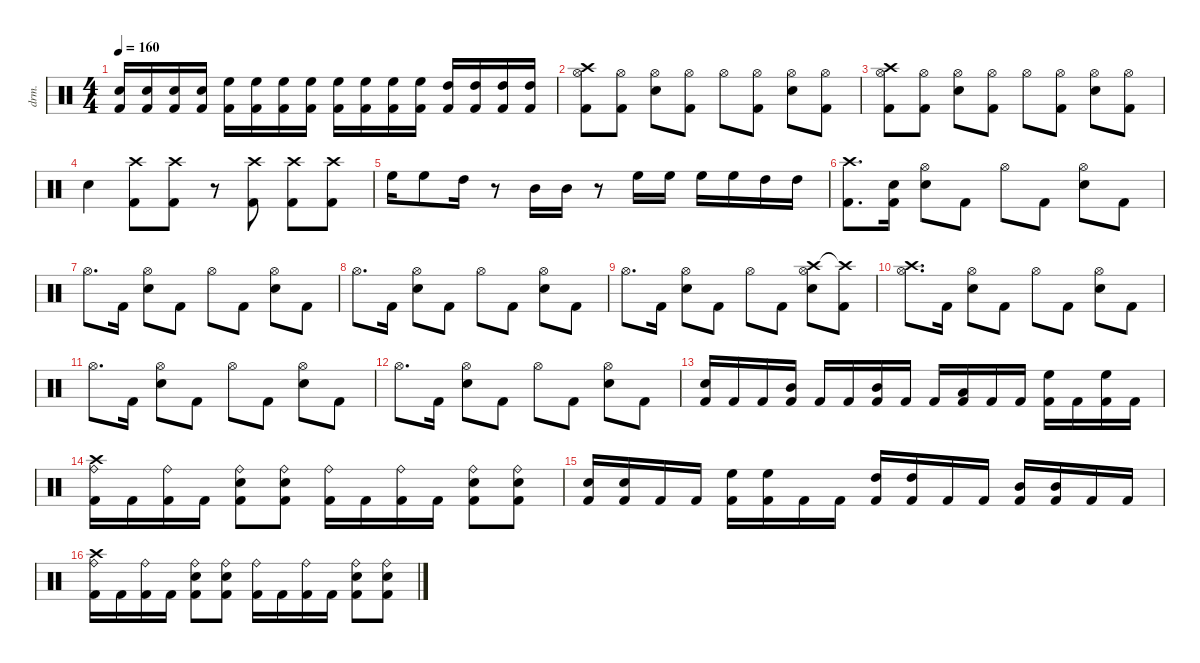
\defaultSystemsLayout 4
\hideDynamics
\bracketExtendMode nobrackets
\track ("Menza" "drm.") {instrument percussion}
\staff {score}
\articulation defaults
\ts (4 4)
\tempo 160
\clef neutral
\ks c
("Snare (hit) 2" "Kick (hit) 2").16{dy f} ("Snare (hit) 2" "Kick (hit) 2").16 ("Snare (hit) 2" "Kick (hit) 2").16 ("Snare (hit) 2" "Kick (hit) 2").16 ("High Floor Tom (hit)" "Kick (hit) 2").16 ("High Floor Tom (hit)" "Kick (hit) 2").16 ("High Floor Tom (hit)" "Kick (hit) 2").16 ("High Floor Tom (hit)" "Kick (hit) 2").16 ("High Floor Tom (hit)" "Kick (hit) 2").16 ("High Floor Tom (hit)" "Kick (hit) 2").16 ("High Floor Tom (hit)" "Kick (hit) 2").16 ("High Floor Tom (hit)" "Kick (hit) 2").16 ("High Tom (hit)" "Kick (hit) 2").16 ("High Tom (hit)" "Kick (hit) 2").16 ("High Tom (hit)" "Kick (hit) 2").16 ("High Tom (hit)" "Kick (hit) 2").16 |
("Crash high (hit)" "Hi-Hat (open)" "Kick (hit) 2").8 ("Hi-Hat (open)" "Kick (hit) 2").8 ("Hi-Hat (open)" "Snare (hit) 2").8 ("Hi-Hat (open)" "Kick (hit) 2").8 "Hi-Hat (open)".8 ("Hi-Hat (open)" "Kick (hit) 2").8 ("Hi-Hat (open)" "Snare (hit) 2").8 ("Hi-Hat (open)" "Kick (hit) 2").8 |
("Crash high (hit)" "Hi-Hat (open)" "Kick (hit) 2").8 ("Hi-Hat (open)" "Kick (hit) 2").8 ("Hi-Hat (open)" "Snare (hit) 2").8 ("Hi-Hat (open)" "Kick (hit) 2").8 "Hi-Hat (open)".8 ("Hi-Hat (open)" "Kick (hit) 2").8 ("Hi-Hat (open)" "Snare (hit) 2").8 ("Hi-Hat (open)" "Kick (hit) 2").8 |
"Snare (hit) 2".4 ("Crash high (hit)" "Kick (hit) 2").8 ("Crash high (hit)" "Kick (hit) 2").8 r.8 ("Crash high (hit)" "Kick (hit) 2").8 ("Crash high (hit)" "Kick (hit) 2").8 ("Crash high (hit)" "Kick (hit) 2").8 |
"High Floor Tom (hit)".16 "High Floor Tom (hit)".8 "High Tom (hit)".16 r.8 "Mid Tom (hit)".16 "Mid Tom (hit)".16 r.8 "High Floor Tom (hit)".16 "High Floor Tom (hit)".16 "High Floor Tom (hit)".16 "High Floor Tom (hit)".16 "High Tom (hit)".16 "High Tom (hit)".16 |
("Crash high (hit)" "Kick (hit) 2").8{d} ("Snare (hit) 2" "Kick (hit) 2").16 ("Hi-Hat (open)" "Snare (hit) 2").8 "Kick (hit) 2".8 "Hi-Hat (open)".8 "Kick (hit) 2".8 ("Hi-Hat (open)" "Snare (hit) 2").8 "Kick (hit) 2".8 |
"Hi-Hat (open)".8{d} "Kick (hit) 2".16 ("Hi-Hat (open)" "Snare (hit) 2").8 "Kick (hit) 2".8 "Hi-Hat (open)".8 "Kick (hit) 2".8 ("Hi-Hat (open)" "Snare (hit) 2").8 "Kick (hit) 2".8 |
"Hi-Hat (open)".8{d} "Kick (hit) 2".16 ("Hi-Hat (open)" "Snare (hit) 2").8 "Kick (hit) 2".8 "Hi-Hat (open)".8 "Kick (hit) 2".8 ("Hi-Hat (open)" "Snare (hit) 2").8 "Kick (hit) 2".8 |
"Hi-Hat (open)".8{d} "Kick (hit) 2".16 ("Hi-Hat (open)" "Snare (hit) 2").8 "Kick (hit) 2".8 "Hi-Hat (open)".8 "Kick (hit) 2".8 ("Crash high (hit)" "Hi-Hat (open)" "Snare (hit) 2").8 ("Crash high (hit)"{t} "Kick (hit) 2").8 |
("Crash high (hit)" "Hi-Hat (open)").8{d} "Kick (hit) 2".16 ("Hi-Hat (open)" "Snare (hit) 2").8 "Kick (hit) 2".8 "Hi-Hat (open)".8 "Kick (hit) 2".8 ("Hi-Hat (open)" "Snare (hit) 2").8 "Kick (hit) 2".8 |
"Hi-Hat (open)".8{d} "Kick (hit) 2".16 ("Hi-Hat (open)" "Snare (hit) 2").8 "Kick (hit) 2".8 "Hi-Hat (open)".8 "Kick (hit) 2".8 ("Hi-Hat (open)" "Snare (hit) 2").8 "Kick (hit) 2".8 |
"Hi-Hat (open)".8{d} "Kick (hit) 2".16 ("Hi-Hat (open)" "Snare (hit) 2").8 "Kick (hit) 2".8 "Hi-Hat (open)".8 "Kick (hit) 2".8 ("Hi-Hat (open)" "Snare (hit) 2").8 "Kick (hit) 2".8 |
("Snare (hit) 2" "Kick (hit) 2").16 "Kick (hit) 2".16 "Kick (hit) 2".16 ("Mid Tom (hit)" "Kick (hit) 2").16 "Kick (hit) 2".16 "Kick (hit) 2".16 ("Mid Tom (hit)" "Kick (hit) 2").16 "Kick (hit) 2".16 "Kick (hit) 2".16 ("Low Tom (hit)" "Kick (hit) 2").16 "Kick (hit) 2".16 "Kick (hit) 2".16 ("High Floor Tom (hit)" "Kick (hit) 2").16 "Kick (hit) 2".16 ("High Floor Tom (hit)" "Kick (hit) 2").16 "Kick (hit) 2".16 |
("Crash high (hit)" "Ride (bell)" "Kick (hit) 2").16 "Kick (hit) 2".16 ("Ride (bell)" "Kick (hit) 2").16 "Kick (hit) 2".16 ("Ride (bell)" "Snare (hit) 2" "Kick (hit) 2").8 ("Ride (bell)" "Snare (hit) 2" "Kick (hit) 2").8 ("Ride (bell)" "Kick (hit) 2").16 "Kick (hit) 2".16 ("Ride (bell)" "Kick (hit) 2").16 "Kick (hit) 2".16 ("Ride (bell)" "Snare (hit) 2" "Kick (hit) 2").8 ("Ride (bell)" "Snare (hit) 2" "Kick (hit) 2").8 |
("Snare (hit) 2" "Kick (hit) 2").16 ("Snare (hit) 2" "Kick (hit) 2").16 "Kick (hit) 2".16 "Kick (hit) 2".16 ("High Floor Tom (hit)" "Kick (hit) 2").16 ("High Floor Tom (hit)" "Kick (hit) 2").16 "Kick (hit) 2".16 "Kick (hit) 2".16 ("High Tom (hit)" "Kick (hit) 2").16 ("High Tom (hit)" "Kick (hit) 2").16 "Kick (hit) 2".16 "Kick (hit) 2".16 ("Mid Tom (hit)" "Kick (hit) 2").16 ("Mid Tom (hit)" "Kick (hit) 2").16 "Kick (hit) 2".16 "Kick (hit) 2".16 |
("Crash high (hit)" "Ride (bell)" "Kick (hit) 2").16 "Kick (hit) 2".16 ("Ride (bell)" "Kick (hit) 2").16 "Kick (hit) 2".16 ("Ride (bell)" "Snare (hit) 2" "Kick (hit) 2").8 ("Ride (bell)" "Snare (hit) 2" "Kick (hit) 2").8 ("Ride (bell)" "Kick (hit) 2").16 "Kick (hit) 2".16 ("Ride (bell)" "Kick (hit) 2").16 "Kick (hit) 2".16 ("Ride (bell)" "Snare (hit) 2" "Kick (hit) 2").8 ("Ride (bell)" "Snare (hit) 2" "Kick (hit) 2").8
